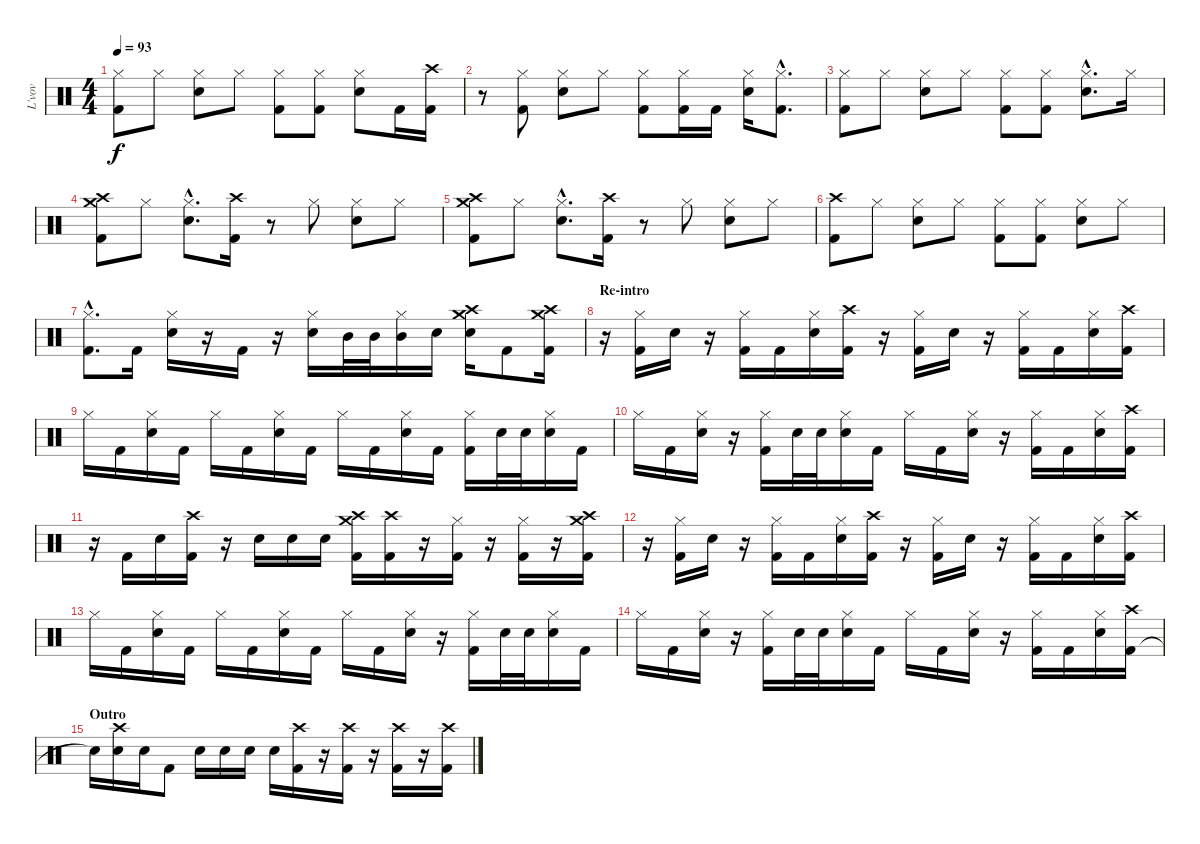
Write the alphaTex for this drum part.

\track ("L'vov" "L'vov") {instrument percussion}
\staff {score}
\articulation defaults
\ts (4 4)
\tempo 93
\clef neutral
\ks c
("Kick (hit) 2" "Hi-Hat (closed)").8{dy f} "Hi-Hat (closed)".8 ("Snare (hit) 2" "Hi-Hat (closed)").8 "Hi-Hat (closed)".8 ("Kick (hit) 2" "Hi-Hat (closed)").8 ("Kick (hit) 2" "Hi-Hat (closed)").8 ("Snare (hit) 2" "Hi-Hat (closed)").8 "Kick (hit) 2".16 ("Kick (hit) 2" "Crash high (hit)").16 |
r.8 ("Kick (hit) 2" "Hi-Hat (closed)").8 ("Snare (hit) 2" "Hi-Hat (closed)").8 "Hi-Hat (closed)".8 ("Kick (hit) 2" "Hi-Hat (closed)").8 ("Kick (hit) 2" "Hi-Hat (closed)").16 "Kick (hit) 2".16 ("Snare (hit) 2" "Hi-Hat (closed)").16 ("Kick (hit) 2"{hac} "Hi-Hat (closed)"{hac}).8{d} |
("Kick (hit) 2" "Hi-Hat (closed)").8 "Hi-Hat (closed)".8 ("Snare (hit) 2" "Hi-Hat (closed)").8 "Hi-Hat (closed)".8 ("Kick (hit) 2" "Hi-Hat (closed)").8 ("Kick (hit) 2" "Hi-Hat (closed)").8 ("Snare (hit) 2"{hac} "Hi-Hat (closed)"{hac}).8{d} "Hi-Hat (closed)".16 |
("Kick (hit) 2" "Crash high (hit)" "Crash medium (hit)").8 "Hi-Hat (closed)".8 ("Snare (hit) 2"{hac} "Hi-Hat (closed)"{hac}).8{d} ("Kick (hit) 2" "Crash high (hit)").16 r.8 "Hi-Hat (closed)".8 ("Snare (hit) 2" "Hi-Hat (closed)").8 "Hi-Hat (closed)".8 |
("Kick (hit) 2" "Crash high (hit)" "Crash medium (hit)").8 "Hi-Hat (closed)".8 ("Snare (hit) 2"{hac} "Hi-Hat (closed)"{hac}).8{d} ("Kick (hit) 2" "Crash high (hit)").16 r.8 "Hi-Hat (closed)".8 ("Snare (hit) 2" "Hi-Hat (closed)").8 "Hi-Hat (closed)".8 |
("Kick (hit) 2" "Crash high (hit)").8 "Hi-Hat (closed)".8 ("Snare (hit) 2" "Hi-Hat (closed)").8 "Hi-Hat (closed)".8 ("Kick (hit) 2" "Hi-Hat (closed)").8 ("Kick (hit) 2" "Hi-Hat (closed)").8 ("Snare (hit) 2" "Hi-Hat (closed)").8 "Hi-Hat (closed)".8 |
("Kick (hit) 2"{hac} "Hi-Hat (closed)"{hac}).8{d} "Kick (hit) 2".16 ("Snare (hit) 2" "Hi-Hat (closed)").16 r.16 "Kick (hit) 2".16 r.16 ("Snare (hit) 2" "Hi-Hat (closed)").16 "Mid Tom (hit)".32 "Mid Tom (hit)".32 ("Mid Tom (hit)" "Hi-Hat (closed)").16 "Snare (hit) 2".16 ("Snare (hit) 2" "Crash high (hit)" "Crash medium (hit)").16 "Kick (hit) 2".8 ("Kick (hit) 2" "Crash high (hit)" "Crash medium (hit)").16 |
\section ("" "Re-intro")
r.16 ("Kick (hit) 2" "Hi-Hat (closed)").16 "Snare (hit) 2".16 r.16 ("Kick (hit) 2" "Hi-Hat (closed)").16 "Kick (hit) 2".16 ("Snare (hit) 2" "Hi-Hat (closed)").16 ("Kick (hit) 2" "Crash high (hit)").16 r.16 ("Kick (hit) 2" "Hi-Hat (closed)").16 "Snare (hit) 2".16 r.16 ("Kick (hit) 2" "Hi-Hat (closed)").16 "Kick (hit) 2".16 ("Snare (hit) 2" "Hi-Hat (closed)").16 ("Kick (hit) 2" "Crash high (hit)").16 |
"Hi-Hat (closed)".16 "Kick (hit) 2".16 ("Snare (hit) 2" "Hi-Hat (closed)").16 "Kick (hit) 2".16 "Hi-Hat (closed)".16 "Kick (hit) 2".16 ("Snare (hit) 2" "Hi-Hat (closed)").16 "Kick (hit) 2".16 "Hi-Hat (closed)".16 "Kick (hit) 2".16 ("Snare (hit) 2" "Hi-Hat (closed)").16 "Kick (hit) 2".16 ("Kick (hit) 2" "Hi-Hat (closed)").16 "Snare (hit) 2".32 "Snare (hit) 2".32 ("Snare (hit) 2" "Hi-Hat (closed)").16 "Kick (hit) 2".16 |
"Hi-Hat (closed)".16 "Kick (hit) 2".16 ("Snare (hit) 2" "Hi-Hat (closed)").16 r.16 ("Kick (hit) 2" "Hi-Hat (closed)").16 "Snare (hit) 2".32 "Snare (hit) 2".32 ("Snare (hit) 2" "Hi-Hat (closed)").16 "Kick (hit) 2".16 "Hi-Hat (closed)".16 "Kick (hit) 2".16 ("Snare (hit) 2" "Hi-Hat (closed)").16 r.16 ("Kick (hit) 2" "Hi-Hat (closed)").16 "Kick (hit) 2".16 ("Snare (hit) 2" "Hi-Hat (closed)").16 ("Kick (hit) 2" "Crash high (hit)").16 |
r.16 "Kick (hit) 2".16 "Snare (hit) 2".16 ("Kick (hit) 2" "Crash high (hit)").16 r.16 "Snare (hit) 2".16 "Snare (hit) 2".16 "Snare (hit) 2".16 ("Kick (hit) 2" "Crash high (hit)" "Crash medium (hit)").16 ("Kick (hit) 2" "Crash high (hit)").16 r.16 ("Kick (hit) 2" "Hi-Hat (closed)").16 r.16 ("Kick (hit) 2" "Hi-Hat (closed)").16 r.16 ("Kick (hit) 2" "Crash medium (hit)" "Crash high (hit)").16 |
r.16 ("Kick (hit) 2" "Hi-Hat (closed)").16 "Snare (hit) 2".16 r.16 ("Kick (hit) 2" "Hi-Hat (closed)").16 "Kick (hit) 2".16 ("Snare (hit) 2" "Hi-Hat (closed)").16 ("Kick (hit) 2" "Crash high (hit)").16 r.16 ("Kick (hit) 2" "Hi-Hat (closed)").16 "Snare (hit) 2".16 r.16 ("Kick (hit) 2" "Hi-Hat (closed)").16 "Kick (hit) 2".16 ("Snare (hit) 2" "Hi-Hat (closed)").16 ("Kick (hit) 2" "Crash high (hit)").16 |
"Hi-Hat (closed)".16 "Kick (hit) 2".16 ("Snare (hit) 2" "Hi-Hat (closed)").16 "Kick (hit) 2".16 "Hi-Hat (closed)".16 "Kick (hit) 2".16 ("Snare (hit) 2" "Hi-Hat (closed)").16 "Kick (hit) 2".16 "Hi-Hat (closed)".16 "Kick (hit) 2".16 ("Snare (hit) 2" "Hi-Hat (closed)").16 r.16 ("Kick (hit) 2" "Hi-Hat (closed)").16 "Snare (hit) 2".32 "Snare (hit) 2".32 ("Snare (hit) 2" "Hi-Hat (closed)").16 "Kick (hit) 2".16 |
"Hi-Hat (closed)".16 "Kick (hit) 2".16 ("Snare (hit) 2" "Hi-Hat (closed)").16 r.16 ("Kick (hit) 2" "Hi-Hat (closed)").16 "Snare (hit) 2".32 "Snare (hit) 2".32 ("Snare (hit) 2" "Hi-Hat (closed)").16 "Kick (hit) 2".16 "Hi-Hat (closed)".16 "Kick (hit) 2".16 ("Snare (hit) 2" "Hi-Hat (closed)").16 r.16 ("Kick (hit) 2" "Hi-Hat (closed)").16 "Kick (hit) 2".16 ("Snare (hit) 2" "Hi-Hat (closed)").16 ("Kick (hit) 2" "Crash high (hit)").16 |
\section ("" "Outro")
"Snare (hit)"{t}.16 ("Snare (hit) 2" "Crash high (hit)").16 "Snare (hit) 2".16 "Kick (hit) 2".8 "Snare (hit) 2".16 "Snare (hit) 2".16 "Snare (hit) 2".16 "Snare (hit) 2".16 ("Kick (hit) 2" "Crash high (hit)").16 r.16 ("Kick (hit) 2" "Crash high (hit)").16 r.16 ("Kick (hit) 2" "Crash high (hit)").16 r.16 ("Kick (hit) 2" "Crash high (hit)").16
